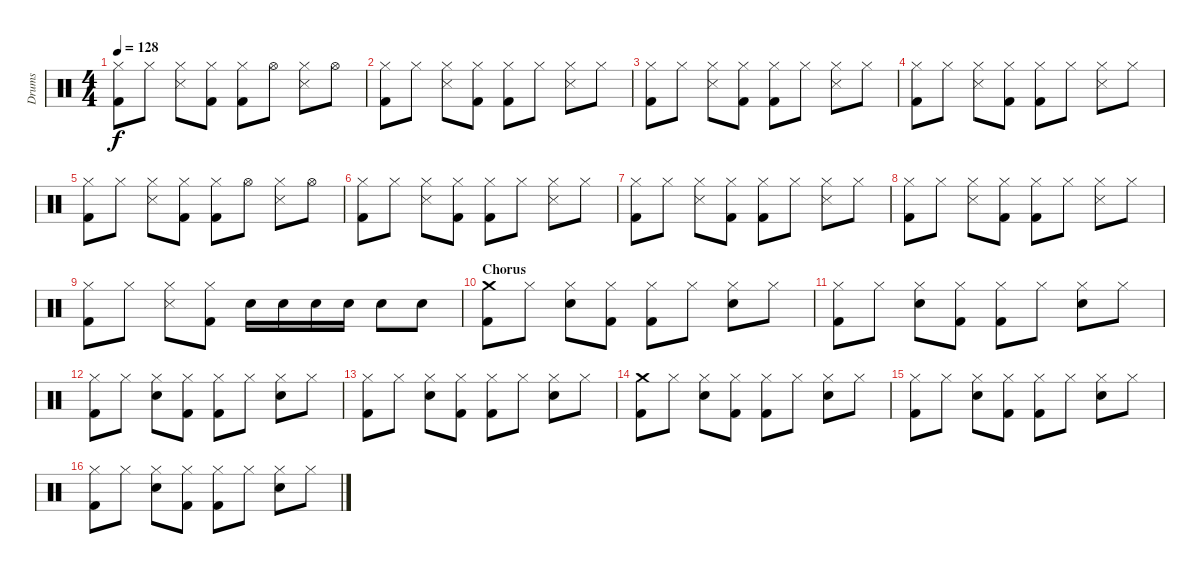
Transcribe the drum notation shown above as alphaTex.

\track ("Drums" "Drums") {instrument percussion}
\staff {score}
\articulation defaults
\ts (4 4)
\tempo 128
\clef neutral
\ks c
("Hi-Hat (closed)" "Kick (hit) 2").8{dy f} "Hi-Hat (closed)".8 ("Hi-Hat (closed)" "Snare (side stick) 3").8 ("Kick (hit) 2" "Hi-Hat (closed)").8 ("Hi-Hat (closed)" "Kick (hit) 2").8 "Hi-Hat (open)".8 ("Hi-Hat (closed)" "Snare (side stick) 3").8 "Hi-Hat (open)".8 |
("Hi-Hat (closed)" "Kick (hit) 2").8 "Hi-Hat (closed)".8 ("Hi-Hat (closed)" "Snare (side stick) 3").8 ("Kick (hit) 2" "Hi-Hat (closed)").8 ("Hi-Hat (closed)" "Kick (hit) 2").8 "Hi-Hat (closed)".8 ("Hi-Hat (closed)" "Snare (side stick) 3").8 "Hi-Hat (closed)".8 |
("Hi-Hat (closed)" "Kick (hit) 2").8 "Hi-Hat (closed)".8 ("Hi-Hat (closed)" "Snare (side stick) 3").8 ("Kick (hit) 2" "Hi-Hat (closed)").8 ("Hi-Hat (closed)" "Kick (hit) 2").8 "Hi-Hat (closed)".8 ("Hi-Hat (closed)" "Snare (side stick) 3").8 "Hi-Hat (closed)".8 |
("Hi-Hat (closed)" "Kick (hit) 2").8 "Hi-Hat (closed)".8 ("Hi-Hat (closed)" "Snare (side stick) 3").8 ("Kick (hit) 2" "Hi-Hat (closed)").8 ("Hi-Hat (closed)" "Kick (hit) 2").8 "Hi-Hat (closed)".8 ("Hi-Hat (closed)" "Snare (side stick) 3").8 "Hi-Hat (closed)".8 |
("Hi-Hat (closed)" "Kick (hit) 2").8 "Hi-Hat (closed)".8 ("Hi-Hat (closed)" "Snare (side stick) 3").8 ("Kick (hit) 2" "Hi-Hat (closed)").8 ("Hi-Hat (closed)" "Kick (hit) 2").8 "Hi-Hat (open)".8 ("Hi-Hat (closed)" "Snare (side stick) 3").8 "Hi-Hat (open)".8 |
("Hi-Hat (closed)" "Kick (hit) 2").8 "Hi-Hat (closed)".8 ("Hi-Hat (closed)" "Snare (side stick) 3").8 ("Kick (hit) 2" "Hi-Hat (closed)").8 ("Hi-Hat (closed)" "Kick (hit) 2").8 "Hi-Hat (closed)".8 ("Hi-Hat (closed)" "Snare (side stick) 3").8 "Hi-Hat (closed)".8 |
("Hi-Hat (closed)" "Kick (hit) 2").8 "Hi-Hat (closed)".8 ("Hi-Hat (closed)" "Snare (side stick) 3").8 ("Kick (hit) 2" "Hi-Hat (closed)").8 ("Hi-Hat (closed)" "Kick (hit) 2").8 "Hi-Hat (closed)".8 ("Hi-Hat (closed)" "Snare (side stick) 3").8 "Hi-Hat (closed)".8 |
("Hi-Hat (closed)" "Kick (hit) 2").8 "Hi-Hat (closed)".8 ("Hi-Hat (closed)" "Snare (side stick) 3").8 ("Kick (hit) 2" "Hi-Hat (closed)").8 ("Hi-Hat (closed)" "Kick (hit) 2").8 "Hi-Hat (closed)".8 ("Hi-Hat (closed)" "Snare (side stick) 3").8 "Hi-Hat (closed)".8 |
("Kick (hit) 2" "Hi-Hat (closed)").8 "Hi-Hat (closed)".8 ("Hi-Hat (closed)" "Snare (side stick) 3").8 ("Hi-Hat (closed)" "Kick (hit) 2").8 "Electric Snare (hit)".16 "Electric Snare (hit)".16 "Electric Snare (hit)".16 "Electric Snare (hit)".16 "Electric Snare (hit)".8 "Electric Snare (hit)".8 |
\section ("" "Chorus")
("Kick (hit) 2" "Crash medium (hit)").8 "Hi-Hat (closed)".8 ("Hi-Hat (closed)" "Electric Snare (hit)").8 ("Kick (hit) 2" "Hi-Hat (closed)").8 ("Hi-Hat (closed)" "Kick (hit) 2").8 "Hi-Hat (closed)".8 ("Hi-Hat (closed)" "Electric Snare (hit)").8 "Hi-Hat (closed)".8 |
("Hi-Hat (closed)" "Kick (hit) 2").8 "Hi-Hat (closed)".8 ("Hi-Hat (closed)" "Electric Snare (hit)").8 ("Kick (hit) 2" "Hi-Hat (closed)").8 ("Hi-Hat (closed)" "Kick (hit) 2").8 "Hi-Hat (closed)".8 ("Hi-Hat (closed)" "Electric Snare (hit)").8 "Hi-Hat (closed)".8 |
("Hi-Hat (closed)" "Kick (hit) 2").8 "Hi-Hat (closed)".8 ("Hi-Hat (closed)" "Electric Snare (hit)").8 ("Kick (hit) 2" "Hi-Hat (closed)").8 ("Hi-Hat (closed)" "Kick (hit) 2").8 "Hi-Hat (closed)".8 ("Hi-Hat (closed)" "Electric Snare (hit)").8 "Hi-Hat (closed)".8 |
("Hi-Hat (closed)" "Kick (hit) 2").8 "Hi-Hat (closed)".8 ("Hi-Hat (closed)" "Electric Snare (hit)").8 ("Kick (hit) 2" "Hi-Hat (closed)").8 ("Hi-Hat (closed)" "Kick (hit) 2").8 "Hi-Hat (closed)".8 ("Hi-Hat (closed)" "Electric Snare (hit)").8 "Hi-Hat (closed)".8 |
("Kick (hit) 2" "Crash medium (hit)").8 "Hi-Hat (closed)".8 ("Hi-Hat (closed)" "Electric Snare (hit)").8 ("Kick (hit) 2" "Hi-Hat (closed)").8 ("Hi-Hat (closed)" "Kick (hit) 2").8 "Hi-Hat (closed)".8 ("Hi-Hat (closed)" "Electric Snare (hit)").8 "Hi-Hat (closed)".8 |
("Hi-Hat (closed)" "Kick (hit) 2").8 "Hi-Hat (closed)".8 ("Hi-Hat (closed)" "Electric Snare (hit)").8 ("Kick (hit) 2" "Hi-Hat (closed)").8 ("Hi-Hat (closed)" "Kick (hit) 2").8 "Hi-Hat (closed)".8 ("Hi-Hat (closed)" "Electric Snare (hit)").8 "Hi-Hat (closed)".8 |
("Hi-Hat (closed)" "Kick (hit) 2").8 "Hi-Hat (closed)".8 ("Hi-Hat (closed)" "Electric Snare (hit)").8 ("Kick (hit) 2" "Hi-Hat (closed)").8 ("Hi-Hat (closed)" "Kick (hit) 2").8 "Hi-Hat (closed)".8 ("Hi-Hat (closed)" "Electric Snare (hit)").8 "Hi-Hat (closed)".8
